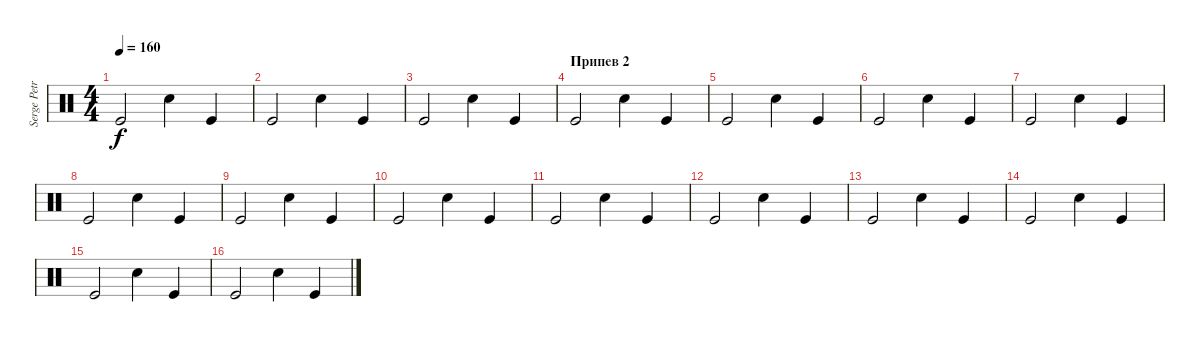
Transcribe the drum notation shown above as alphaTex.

\track ("Serge Petrone" "Serge Petr") {instrument percussion}
\staff {score}
\articulation defaults
\ts (4 4)
\tempo 160
\clef neutral
\ks c "Kick (hit)".2{dy f} "Snare (hit) 2".4 "Kick (hit)".4
|
"Kick (hit)".2 "Snare (hit) 2".4 "Kick (hit)".4 |
"Kick (hit)".2 "Snare (hit) 2".4 "Kick (hit)".4 |
\section ("" "Припев 2")
"Kick (hit)".2 "Snare (hit) 2".4 "Kick (hit)".4 |
"Kick (hit)".2 "Snare (hit) 2".4 "Kick (hit)".4 |
"Kick (hit)".2 "Snare (hit) 2".4 "Kick (hit)".4 |
"Kick (hit)".2 "Snare (hit) 2".4 "Kick (hit)".4 |
"Kick (hit)".2 "Snare (hit) 2".4 "Kick (hit)".4 |
"Kick (hit)".2 "Snare (hit) 2".4 "Kick (hit)".4 |
"Kick (hit)".2 "Snare (hit) 2".4 "Kick (hit)".4 |
"Kick (hit)".2 "Snare (hit) 2".4 "Kick (hit)".4 |
"Kick (hit)".2 "Snare (hit) 2".4 "Kick (hit)".4 |
"Kick (hit)".2 "Snare (hit) 2".4 "Kick (hit)".4 |
"Kick (hit)".2 "Snare (hit) 2".4 "Kick (hit)".4 |
"Kick (hit)".2 "Snare (hit) 2".4 "Kick (hit)".4 |
"Kick (hit)".2 "Snare (hit) 2".4 "Kick (hit)".4
